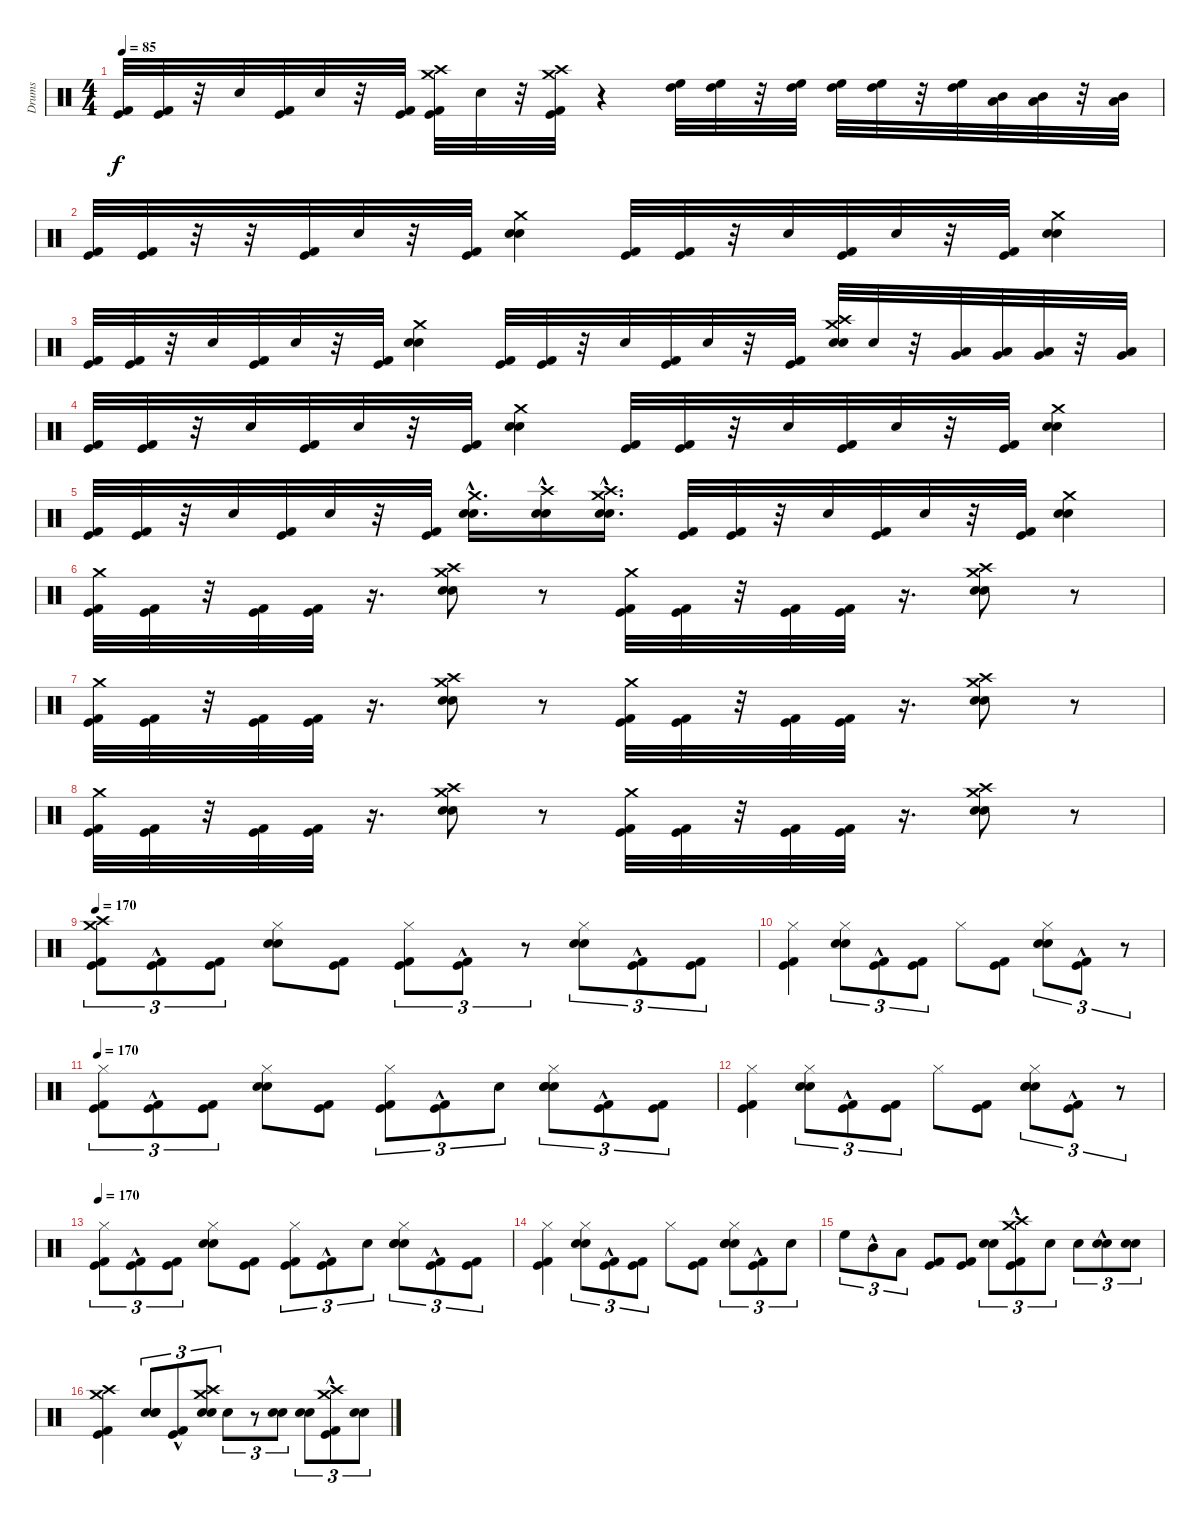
\track ("Drums" "Drums") {instrument percussion}
\staff {score}
\articulation defaults
\ts (4 4)
\tempo 85
\clef neutral
\ks c
("Kick (hit) 2" "Kick (hit)").32{dy f} ("Kick (hit) 2" "Kick (hit)").32 r.32 "Snare (hit)".32 ("Kick (hit) 2" "Kick (hit)").32 "Snare (hit)".32 r.32 ("Kick (hit) 2" "Kick (hit)").32 ("Crash high (hit)" "Crash medium (hit)" "Kick (hit) 2" "Kick (hit)").32 "Snare (hit)".32 r.32 ("Crash high (hit)" "Crash medium (hit)" "Kick (hit) 2" "Kick (hit)").32 r.4 ("High Tom (hit)" "High Floor Tom (hit)").32 ("High Tom (hit)" "High Floor Tom (hit)").32 r.32 ("High Tom (hit)" "High Floor Tom (hit)").32 ("High Floor Tom (hit)" "High Tom (hit)").32 ("High Tom (hit)" "High Floor Tom (hit)").32 r.32 ("High Tom (hit)" "High Floor Tom (hit)").32 ("Mid Tom (hit)" "Low Tom (hit)").32 ("Mid Tom (hit)" "Low Tom (hit)").32 r.32 ("Mid Tom (hit)" "Low Tom (hit)").32 |
("Kick (hit) 2" "Kick (hit)").32 ("Kick (hit) 2" "Kick (hit)").32 r.32 r.32 ("Kick (hit) 2" "Kick (hit)").32 "Snare (hit)".32 r.32 ("Kick (hit) 2" "Kick (hit)").32 ("Crash medium (hit)" "Electric Snare (hit)" "Snare (hit) 2").4 ("Kick (hit) 2" "Kick (hit)").32 ("Kick (hit) 2" "Kick (hit)").32 r.32 "Snare (hit)".32 ("Kick (hit) 2" "Kick (hit)").32 "Snare (hit)".32 r.32 ("Kick (hit) 2" "Kick (hit)").32 ("Crash medium (hit)" "Electric Snare (hit)" "Snare (hit) 2").4 |
("Kick (hit) 2" "Kick (hit)").32 ("Kick (hit) 2" "Kick (hit)").32 r.32 "Snare (hit)".32 ("Kick (hit) 2" "Kick (hit)").32 "Snare (hit)".32 r.32 ("Kick (hit) 2" "Kick (hit)").32 ("Crash medium (hit)" "Electric Snare (hit)" "Snare (hit) 2").4 ("Kick (hit) 2" "Kick (hit)").32 ("Kick (hit) 2" "Kick (hit)").32 r.32 "Snare (hit)".32 ("Kick (hit) 2" "Kick (hit)").32 "Snare (hit)".32 r.32 ("Kick (hit) 2" "Kick (hit)").32 ("Crash high (hit)" "Crash medium (hit)" "Electric Snare (hit)" "Snare (hit) 2").32 "Snare (hit)".32 r.32 ("Very Low Tom (hit)" "Low Floor Tom (hit)").32 ("Very Low Tom (hit)" "Low Floor Tom (hit)").32 ("Very Low Tom (hit)" "Low Floor Tom (hit)").32 r.32 ("Very Low Tom (hit)" "Low Floor Tom (hit)").32 |
("Kick (hit) 2" "Kick (hit)").32 ("Kick (hit) 2" "Kick (hit)").32 r.32 "Snare (hit)".32 ("Kick (hit) 2" "Kick (hit)").32 "Snare (hit)".32 r.32 ("Kick (hit) 2" "Kick (hit)").32 ("Crash medium (hit)" "Electric Snare (hit)" "Snare (hit) 2").4 ("Kick (hit) 2" "Kick (hit)").32 ("Kick (hit) 2" "Kick (hit)").32 r.32 "Snare (hit)".32 ("Kick (hit) 2" "Kick (hit)").32 "Snare (hit)".32 r.32 ("Kick (hit) 2" "Kick (hit)").32 ("Crash medium (hit)" "Electric Snare (hit)" "Snare (hit) 2").4 |
("Kick (hit) 2" "Kick (hit)").32 ("Kick (hit) 2" "Kick (hit)").32 r.32 "Snare (hit)".32 ("Kick (hit) 2" "Kick (hit)").32 "Snare (hit)".32 r.32 ("Kick (hit) 2" "Kick (hit)").32 ("Crash medium (hit)"{hac} "Electric Snare (hit)"{hac} "Snare (hit) 2"{hac}).16{d} ("Crash high (hit)"{hac} "Electric Snare (hit)"{hac} "Snare (hit) 2"{hac}).16 ("Crash high (hit)"{hac} "Crash medium (hit)"{hac} "Electric Snare (hit)"{hac} "Snare (hit) 2"{hac}).16{d} ("Kick (hit) 2" "Kick (hit)").32 ("Kick (hit) 2" "Kick (hit)").32 r.32 "Snare (hit)".32 ("Kick (hit) 2" "Kick (hit)").32 "Snare (hit)".32 r.32 ("Kick (hit) 2" "Kick (hit)").32 ("Crash medium (hit)" "Electric Snare (hit)" "Snare (hit) 2").4 |
("Crash medium (hit)" "Kick (hit) 2" "Kick (hit)").32 ("Kick (hit) 2" "Kick (hit)").32 r.32 ("Kick (hit) 2" "Kick (hit)").32 ("Kick (hit) 2" "Kick (hit)").32 r.16{d} ("Crash high (hit)" "Crash medium (hit)" "Electric Snare (hit)" "Snare (hit) 2").8 r.8 ("Crash medium (hit)" "Kick (hit) 2" "Kick (hit)").32 ("Kick (hit) 2" "Kick (hit)").32 r.32 ("Kick (hit) 2" "Kick (hit)").32 ("Kick (hit) 2" "Kick (hit)").32 r.16{d} ("Crash medium (hit)" "Crash high (hit)" "Electric Snare (hit)" "Snare (hit) 2").8 r.8 |
("Crash medium (hit)" "Kick (hit) 2" "Kick (hit)").32 ("Kick (hit) 2" "Kick (hit)").32 r.32 ("Kick (hit) 2" "Kick (hit)").32 ("Kick (hit) 2" "Kick (hit)").32 r.16{d} ("Crash high (hit)" "Crash medium (hit)" "Electric Snare (hit)" "Snare (hit) 2").8 r.8 ("Crash medium (hit)" "Kick (hit) 2" "Kick (hit)").32 ("Kick (hit) 2" "Kick (hit)").32 r.32 ("Kick (hit) 2" "Kick (hit)").32 ("Kick (hit) 2" "Kick (hit)").32 r.16{d} ("Crash medium (hit)" "Crash high (hit)" "Electric Snare (hit)" "Snare (hit) 2").8 r.8 |
("Crash medium (hit)" "Kick (hit) 2" "Kick (hit)").32 ("Kick (hit) 2" "Kick (hit)").32 r.32 ("Kick (hit) 2" "Kick (hit)").32 ("Kick (hit) 2" "Kick (hit)").32 r.16{d} ("Crash high (hit)" "Crash medium (hit)" "Electric Snare (hit)" "Snare (hit) 2").8 r.8 ("Crash medium (hit)" "Kick (hit) 2" "Kick (hit)").32 ("Kick (hit) 2" "Kick (hit)").32 r.32 ("Kick (hit) 2" "Kick (hit)").32 ("Kick (hit) 2" "Kick (hit)").32 r.16{d} ("Crash medium (hit)" "Crash high (hit)" "Electric Snare (hit)" "Snare (hit) 2").8 r.8 |
\tempo 170
("Crash high (hit)" "Crash medium (hit)" "Kick (hit) 2" "Kick (hit)").8{tu (3 2)} ("Kick (hit) 2"{hac} "Kick (hit)"{hac}).8{tu (3 2)} ("Kick (hit) 2" "Kick (hit)").8{tu (3 2)} ("Hi-Hat (closed)" "Electric Snare (hit)" "Snare (hit) 2").8 ("Kick (hit) 2" "Kick (hit)").8 ("Hi-Hat (closed)" "Kick (hit) 2" "Kick (hit)").8{tu (3 2)} ("Kick (hit) 2"{hac} "Kick (hit)"{hac}).8{tu (3 2)} r.8{tu (3 2)} ("Electric Snare (hit)" "Snare (hit) 2" "Hi-Hat (closed)").8{tu (3 2)} ("Kick (hit) 2"{hac} "Kick (hit)"{hac}).8{tu (3 2)} ("Kick (hit) 2" "Kick (hit)").8{tu (3 2)} |
("Hi-Hat (closed)" "Kick (hit) 2" "Kick (hit)").4 ("Hi-Hat (closed)" "Snare (hit) 2" "Electric Snare (hit)").8{tu (3 2)} ("Kick (hit) 2"{hac} "Kick (hit)"{hac}).8{tu (3 2)} ("Kick (hit) 2" "Kick (hit)").8{tu (3 2)} "Hi-Hat (closed)".8 ("Kick (hit) 2" "Kick (hit)").8 ("Hi-Hat (closed)" "Electric Snare (hit)" "Snare (hit) 2").8{tu (3 2)} ("Kick (hit) 2"{hac} "Kick (hit)"{hac}).8{tu (3 2)} r.8{tu (3 2)} |
\tempo 170
("Hi-Hat (closed)" "Kick (hit) 2" "Kick (hit)").8{tu (3 2)} ("Kick (hit) 2"{hac} "Kick (hit)"{hac}).8{tu (3 2)} ("Kick (hit) 2" "Kick (hit)").8{tu (3 2)} ("Electric Snare (hit)" "Snare (hit) 2" "Hi-Hat (closed)").8 ("Kick (hit) 2" "Kick (hit)").8 ("Hi-Hat (closed)" "Kick (hit) 2" "Kick (hit)").8{tu (3 2)} ("Kick (hit) 2"{hac} "Kick (hit)"{hac}).8{tu (3 2)} "Snare (hit)".8{tu (3 2)} ("Electric Snare (hit)" "Snare (hit) 2" "Hi-Hat (closed)" "Snare (hit)").8{tu (3 2)} ("Kick (hit) 2"{hac} "Kick (hit)"{hac}).8{tu (3 2)} ("Kick (hit) 2" "Kick (hit)").8{tu (3 2)} |
("Hi-Hat (closed)" "Kick (hit) 2" "Kick (hit)").4 ("Electric Snare (hit)" "Snare (hit) 2" "Hi-Hat (closed)").8{tu (3 2)} ("Kick (hit) 2"{hac} "Kick (hit)"{hac}).8{tu (3 2)} ("Kick (hit) 2" "Kick (hit)").8{tu (3 2)} "Hi-Hat (closed)".8 ("Kick (hit) 2" "Kick (hit)").8 ("Electric Snare (hit)" "Snare (hit) 2" "Hi-Hat (closed)" "Snare (hit)").8{tu (3 2)} ("Kick (hit) 2"{hac} "Kick (hit)"{hac}).8{tu (3 2)} r.8{tu (3 2)} |
\tempo 170
("Hi-Hat (closed)" "Kick (hit) 2" "Kick (hit)").8{tu (3 2)} ("Kick (hit) 2"{hac} "Kick (hit)"{hac}).8{tu (3 2)} ("Kick (hit) 2" "Kick (hit)").8{tu (3 2)} ("Electric Snare (hit)" "Snare (hit) 2" "Hi-Hat (closed)").8 ("Kick (hit) 2" "Kick (hit)").8 ("Hi-Hat (closed)" "Kick (hit) 2" "Kick (hit)").8{tu (3 2)} ("Kick (hit) 2"{hac} "Kick (hit)"{hac}).8{tu (3 2)} "Snare (hit)".8{tu (3 2)} ("Electric Snare (hit)" "Snare (hit) 2" "Hi-Hat (closed)" "Snare (hit)").8{tu (3 2)} ("Kick (hit) 2"{hac} "Kick (hit)"{hac}).8{tu (3 2)} ("Kick (hit) 2" "Kick (hit)").8{tu (3 2)} |
("Hi-Hat (closed)" "Kick (hit) 2" "Kick (hit)").4 ("Electric Snare (hit)" "Snare (hit) 2" "Hi-Hat (closed)").8{tu (3 2)} ("Kick (hit) 2"{hac} "Kick (hit)"{hac}).8{tu (3 2)} ("Kick (hit) 2" "Kick (hit)").8{tu (3 2)} "Hi-Hat (closed)".8 ("Kick (hit) 2" "Kick (hit)").8 ("Electric Snare (hit)" "Snare (hit) 2" "Hi-Hat (closed)" "Snare (hit)").8{tu (3 2)} ("Kick (hit) 2"{hac} "Kick (hit)"{hac}).8{tu (3 2)} "Snare (hit)".8{tu (3 2)} |
"High Floor Tom (hit)".8{tu (3 2)} "Mid Tom (hit)"{hac}.8{tu (3 2)} "Low Tom (hit)".8{tu (3 2)} ("Kick (hit) 2" "Kick (hit)").8 ("Kick (hit) 2" "Kick (hit)").8 ("Electric Snare (hit)" "Snare (hit) 2").8{tu (3 2)} ("Crash high (hit)"{hac} "Crash medium (hit)"{hac} "Kick (hit) 2"{hac} "Kick (hit)"{hac}).8{tu (3 2)} "Snare (hit)".8{tu (3 2)} "Snare (hit)".8{tu (3 2)} ("Electric Snare (hit)"{hac} "Snare (hit) 2"{hac}).8{tu (3 2)} ("Electric Snare (hit)" "Snare (hit) 2").8{tu (3 2)} |
("Crash medium (hit)" "Crash high (hit)" "Kick (hit) 2" "Kick (hit)").4 ("Snare (hit)" "Electric Snare (hit)" "Snare (hit) 2").8{tu (3 2)} ("Kick (hit) 2"{hac} "Kick (hit)"{hac}).8{tu (3 2)} ("Crash high (hit)" "Crash medium (hit)" "Electric Snare (hit)" "Snare (hit) 2").8{tu (3 2)} "Snare (hit)".8{tu (3 2)} r.8{tu (3 2)} ("Electric Snare (hit)" "Snare (hit) 2").8{tu (3 2)} ("Electric Snare (hit)" "Snare (hit) 2").8{tu (3 2)} ("Crash high (hit)"{hac} "Crash medium (hit)"{hac} "Kick (hit) 2"{hac} "Kick (hit)"{hac}).8{tu (3 2)} ("Snare (hit)" "Snare (hit)").8{tu (3 2)}
